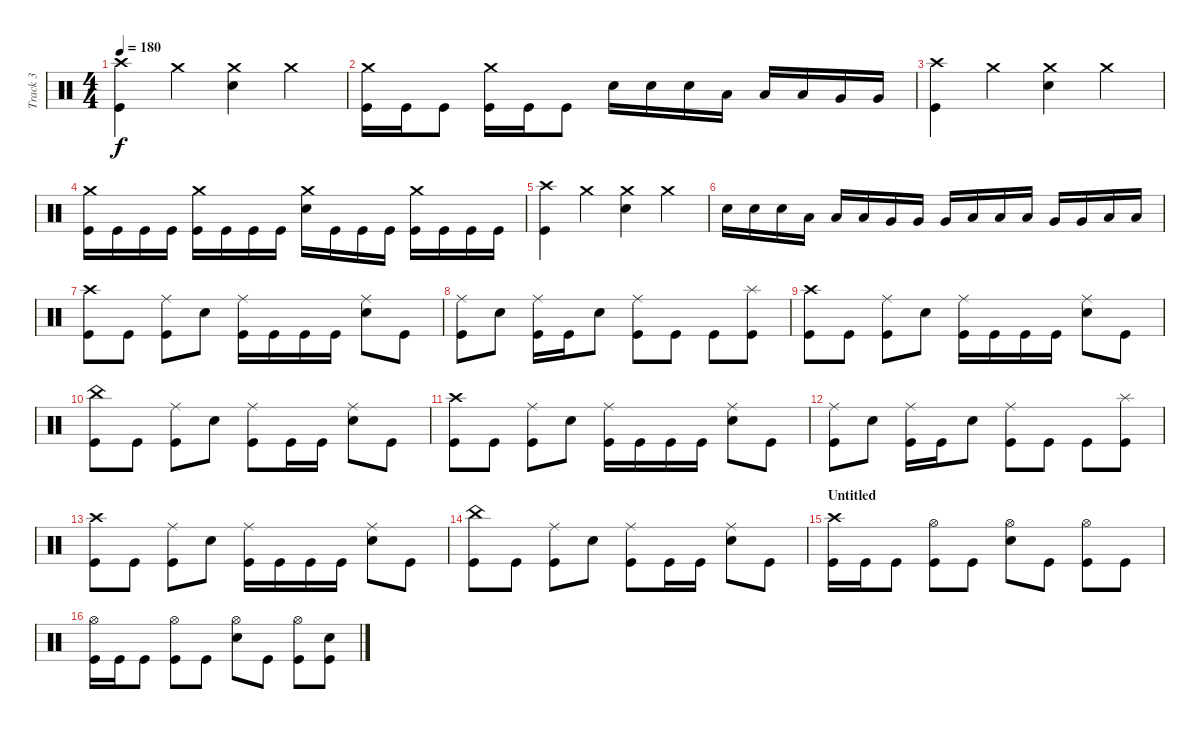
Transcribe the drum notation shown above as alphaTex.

\track ("Track 3" "Track 3") {instrument percussion}
\staff {score}
\articulation defaults
\ts (4 4)
\tempo 180
\clef neutral
\ks c
("Crash high (hit)" "Kick (hit)").4{dy f} "Crash medium (hit)".4 ("Crash medium (hit)" "Electric Snare (hit)").4 "Crash medium (hit)".4 |
("Crash medium (hit)" "Kick (hit)").16 "Kick (hit)".16 "Kick (hit)".8 ("Crash medium (hit)" "Kick (hit)").16 "Kick (hit)".16 "Kick (hit)".8 "Electric Snare (hit)".16 "Electric Snare (hit)".16 "Electric Snare (hit)".16 "Low Tom (hit)".16 "Low Tom (hit)".16 "Low Tom (hit)".16 "Very Low Tom (hit)".16 "Very Low Tom (hit)".16 |
("Crash high (hit)" "Kick (hit)").4 "Crash medium (hit)".4 ("Crash medium (hit)" "Electric Snare (hit)").4 "Crash medium (hit)".4 |
("Crash medium (hit)" "Kick (hit)").16 "Kick (hit)".16 "Kick (hit)".16 "Kick (hit)".16 ("Crash medium (hit)" "Kick (hit)").16 "Kick (hit)".16 "Kick (hit)".16 "Kick (hit)".16 ("Crash medium (hit)" "Electric Snare (hit)").16 "Kick (hit)".16 "Kick (hit)".16 "Kick (hit)".16 ("Crash medium (hit)" "Kick (hit)").16 "Kick (hit)".16 "Kick (hit)".16 "Kick (hit)".16 |
("Crash high (hit)" "Kick (hit)").4 "Crash medium (hit)".4 ("Crash medium (hit)" "Electric Snare (hit)").4 "Crash medium (hit)".4 |
"Electric Snare (hit)".16 "Electric Snare (hit)".16 "Electric Snare (hit)".16 "Low Tom (hit)".16 "Low Tom (hit)".16 "Low Tom (hit)".16 "Very Low Tom (hit)".16 "Very Low Tom (hit)".16 "Very Low Tom (hit)".16 "Low Tom (hit)".16 "Low Tom (hit)".16 "Low Tom (hit)".16 "Very Low Tom (hit)".16 "Very Low Tom (hit)".16 "Low Floor Tom (hit)".16 "Low Floor Tom (hit)".16 |
("Crash high (hit)" "Kick (hit)").8 "Kick (hit)".8 ("Ride (middle)" "Kick (hit)").8 "Electric Snare (hit)".8 ("Ride (middle)" "Kick (hit)").16 "Kick (hit)".16 "Kick (hit)".16 "Kick (hit)".16 ("Ride (middle)" "Electric Snare (hit)").8 "Kick (hit)".8 |
("Ride (middle)" "Kick (hit)").8 "Electric Snare (hit)".8 ("Ride (middle)" "Kick (hit)").16 "Kick (hit)".16 "Electric Snare (hit)".8 ("Ride (middle)" "Kick (hit)").8 "Kick (hit)".8 "Kick (hit)".8 ("Splash (hit)" "Kick (hit)").8 |
("Crash high (hit)" "Kick (hit)").8 "Kick (hit)".8 ("Ride (middle)" "Kick (hit)").8 "Electric Snare (hit)".8 ("Ride (middle)" "Kick (hit)").16 "Kick (hit)".16 "Kick (hit)".16 "Kick (hit)".16 ("Ride (middle)" "Electric Snare (hit)").8 "Kick (hit)".8 |
("China (hit)" "Kick (hit)").8 "Kick (hit)".8 ("Ride (middle)" "Kick (hit)").8 "Electric Snare (hit)".8 ("Ride (middle)" "Kick (hit)").8 "Kick (hit)".16 "Kick (hit)".16 ("Ride (middle)" "Electric Snare (hit)").8 "Kick (hit)".8 |
("Crash high (hit)" "Kick (hit)").8 "Kick (hit)".8 ("Ride (middle)" "Kick (hit)").8 "Electric Snare (hit)".8 ("Ride (middle)" "Kick (hit)").16 "Kick (hit)".16 "Kick (hit)".16 "Kick (hit)".16 ("Ride (middle)" "Electric Snare (hit)").8 "Kick (hit)".8 |
("Ride (middle)" "Kick (hit)").8 "Electric Snare (hit)".8 ("Ride (middle)" "Kick (hit)").16 "Kick (hit)".16 "Electric Snare (hit)".8 ("Ride (middle)" "Kick (hit)").8 "Kick (hit)".8 "Kick (hit)".8 ("Splash (hit)" "Kick (hit)").8 |
("Crash high (hit)" "Kick (hit)").8 "Kick (hit)".8 ("Ride (middle)" "Kick (hit)").8 "Electric Snare (hit)".8 ("Ride (middle)" "Kick (hit)").16 "Kick (hit)".16 "Kick (hit)".16 "Kick (hit)".16 ("Ride (middle)" "Electric Snare (hit)").8 "Kick (hit)".8 |
("China (hit)" "Kick (hit)").8 "Kick (hit)".8 ("Ride (middle)" "Kick (hit)").8 "Electric Snare (hit)".8 ("Ride (middle)" "Kick (hit)").8 "Kick (hit)".16 "Kick (hit)".16 ("Ride (middle)" "Electric Snare (hit)").8 "Kick (hit)".8 |
\section ("" "Untitled")
("Crash high (hit)" "Kick (hit)").16 "Kick (hit)".16 "Kick (hit)".8 ("Hi-Hat (open)" "Kick (hit)").8 "Kick (hit)".8 ("Hi-Hat (open)" "Electric Snare (hit)").8 "Kick (hit)".8 ("Hi-Hat (open)" "Kick (hit)").8 "Kick (hit)".8 |
("Hi-Hat (open)" "Kick (hit)").16 "Kick (hit)".16 "Kick (hit)".8 ("Hi-Hat (open)" "Kick (hit)").8 "Kick (hit)".8 ("Hi-Hat (open)" "Electric Snare (hit)").8 "Kick (hit)".8 ("Hi-Hat (open)" "Kick (hit)").8 ("Electric Snare (hit)" "Kick (hit)").8
